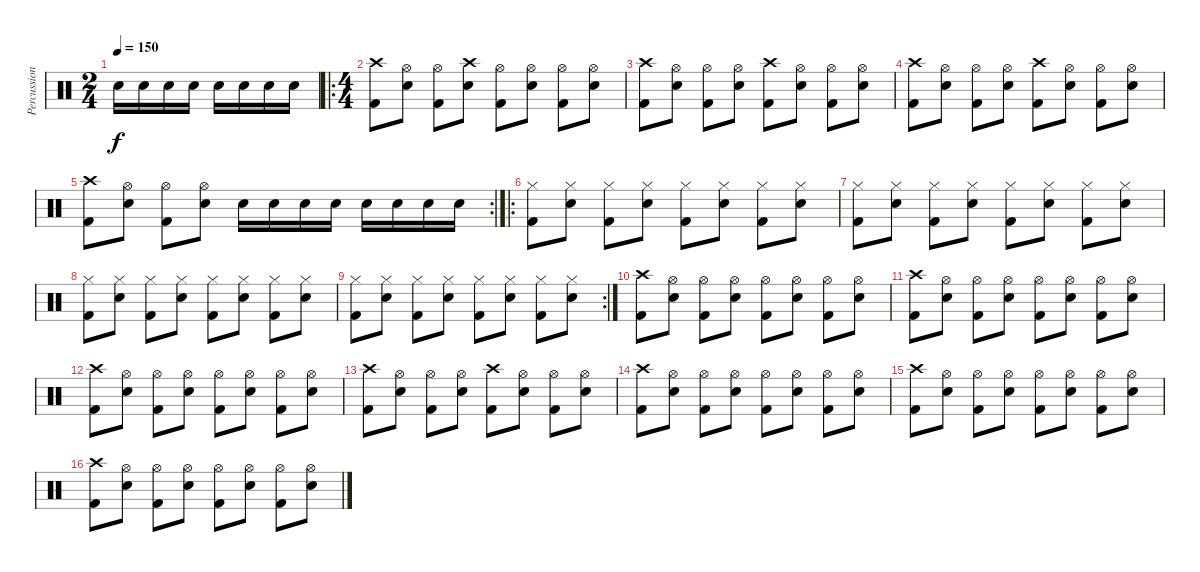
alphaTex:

\track ("Percussion" "Percussion") {instrument percussion}
\staff {score}
\articulation defaults
\ts (2 4)
\tempo 150
\clef neutral
\ks c "Electric Snare (hit)".16{dy f} "Electric Snare (hit)".16 "Electric Snare (hit)".16 "Electric Snare (hit)".16 "Electric Snare (hit)".16 "Electric Snare (hit)".16 "Electric Snare (hit)".16 "Electric Snare (hit)".16
|
\ro
\ts (4 4)
("Crash high (hit)" "Kick (hit) 2").8 ("Hi-Hat (open)" "Electric Snare (hit)").8 ("Hi-Hat (open)" "Kick (hit) 2").8 ("Crash high (hit)" "Electric Snare (hit)").8 ("Hi-Hat (open)" "Kick (hit) 2").8 ("Hi-Hat (open)" "Electric Snare (hit)").8 ("Hi-Hat (open)" "Kick (hit) 2").8 ("Hi-Hat (open)" "Electric Snare (hit)").8 |
("Crash high (hit)" "Kick (hit) 2").8 ("Hi-Hat (open)" "Electric Snare (hit)").8 ("Hi-Hat (open)" "Kick (hit) 2").8 ("Hi-Hat (open)" "Electric Snare (hit)").8 ("Crash high (hit)" "Kick (hit) 2").8 ("Hi-Hat (open)" "Electric Snare (hit)").8 ("Hi-Hat (open)" "Kick (hit) 2").8 ("Hi-Hat (open)" "Electric Snare (hit)").8 |
("Crash high (hit)" "Kick (hit) 2").8 ("Hi-Hat (open)" "Electric Snare (hit)").8 ("Hi-Hat (open)" "Kick (hit) 2").8 ("Hi-Hat (open)" "Electric Snare (hit)").8 ("Crash high (hit)" "Kick (hit) 2").8 ("Hi-Hat (open)" "Electric Snare (hit)").8 ("Hi-Hat (open)" "Kick (hit) 2").8 ("Hi-Hat (open)" "Electric Snare (hit)").8 |
\rc 2
("Crash high (hit)" "Kick (hit) 2").8 ("Hi-Hat (open)" "Electric Snare (hit)").8 ("Hi-Hat (open)" "Kick (hit) 2").8 ("Hi-Hat (open)" "Electric Snare (hit)").8 "Electric Snare (hit)".16 "Electric Snare (hit)".16 "Electric Snare (hit)".16 "Electric Snare (hit)".16 "Electric Snare (hit)".16 "Electric Snare (hit)".16 "Electric Snare (hit)".16 "Electric Snare (hit)".16 |
\ro
("Hi-Hat (closed)" "Kick (hit) 2").8 ("Hi-Hat (closed)" "Electric Snare (hit)").8 ("Hi-Hat (closed)" "Kick (hit) 2").8 ("Hi-Hat (closed)" "Electric Snare (hit)").8 ("Hi-Hat (closed)" "Kick (hit) 2").8 ("Hi-Hat (closed)" "Electric Snare (hit)").8 ("Hi-Hat (closed)" "Kick (hit) 2").8 ("Hi-Hat (closed)" "Electric Snare (hit)").8 |
("Hi-Hat (closed)" "Kick (hit) 2").8 ("Hi-Hat (closed)" "Electric Snare (hit)").8 ("Hi-Hat (closed)" "Kick (hit) 2").8 ("Hi-Hat (closed)" "Electric Snare (hit)").8 ("Hi-Hat (closed)" "Kick (hit) 2").8 ("Hi-Hat (closed)" "Electric Snare (hit)").8 ("Hi-Hat (closed)" "Kick (hit) 2").8 ("Hi-Hat (closed)" "Electric Snare (hit)").8 |
("Hi-Hat (closed)" "Kick (hit) 2").8 ("Hi-Hat (closed)" "Electric Snare (hit)").8 ("Hi-Hat (closed)" "Kick (hit) 2").8 ("Hi-Hat (closed)" "Electric Snare (hit)").8 ("Hi-Hat (closed)" "Kick (hit) 2").8 ("Hi-Hat (closed)" "Electric Snare (hit)").8 ("Hi-Hat (closed)" "Kick (hit) 2").8 ("Hi-Hat (closed)" "Electric Snare (hit)").8 |
\rc 2
("Hi-Hat (closed)" "Kick (hit) 2").8 ("Hi-Hat (closed)" "Electric Snare (hit)").8 ("Hi-Hat (closed)" "Kick (hit) 2").8 ("Hi-Hat (closed)" "Electric Snare (hit)").8 ("Hi-Hat (closed)" "Kick (hit) 2").8 ("Hi-Hat (closed)" "Electric Snare (hit)").8 ("Hi-Hat (closed)" "Kick (hit) 2").8 ("Hi-Hat (closed)" "Electric Snare (hit)").8 |
("Crash high (hit)" "Kick (hit) 2").8 ("Hi-Hat (open)" "Electric Snare (hit)").8 ("Hi-Hat (open)" "Kick (hit) 2").8 ("Hi-Hat (open)" "Electric Snare (hit)").8 ("Hi-Hat (open)" "Kick (hit) 2").8 ("Hi-Hat (open)" "Electric Snare (hit)").8 ("Hi-Hat (open)" "Kick (hit) 2").8 ("Hi-Hat (open)" "Electric Snare (hit)").8 |
("Crash high (hit)" "Kick (hit) 2").8 ("Hi-Hat (open)" "Electric Snare (hit)").8 ("Hi-Hat (open)" "Kick (hit) 2").8 ("Hi-Hat (open)" "Electric Snare (hit)").8 ("Hi-Hat (open)" "Kick (hit) 2").8 ("Hi-Hat (open)" "Electric Snare (hit)").8 ("Hi-Hat (open)" "Kick (hit) 2").8 ("Hi-Hat (open)" "Electric Snare (hit)").8 |
("Crash high (hit)" "Kick (hit) 2").8 ("Hi-Hat (open)" "Electric Snare (hit)").8 ("Hi-Hat (open)" "Kick (hit) 2").8 ("Hi-Hat (open)" "Electric Snare (hit)").8 ("Hi-Hat (open)" "Kick (hit) 2").8 ("Hi-Hat (open)" "Electric Snare (hit)").8 ("Hi-Hat (open)" "Kick (hit) 2").8 ("Hi-Hat (open)" "Electric Snare (hit)").8 |
("Crash high (hit)" "Kick (hit) 2").8 ("Hi-Hat (open)" "Electric Snare (hit)").8 ("Hi-Hat (open)" "Kick (hit) 2").8 ("Hi-Hat (open)" "Electric Snare (hit)").8 ("Crash high (hit)" "Kick (hit) 2").8 ("Hi-Hat (open)" "Electric Snare (hit)").8 ("Hi-Hat (open)" "Kick (hit) 2").8 ("Hi-Hat (open)" "Electric Snare (hit)").8 |
("Crash high (hit)" "Kick (hit) 2").8 ("Hi-Hat (open)" "Electric Snare (hit)").8 ("Hi-Hat (open)" "Kick (hit) 2").8 ("Hi-Hat (open)" "Electric Snare (hit)").8 ("Hi-Hat (open)" "Kick (hit) 2").8 ("Hi-Hat (open)" "Electric Snare (hit)").8 ("Hi-Hat (open)" "Kick (hit) 2").8 ("Hi-Hat (open)" "Electric Snare (hit)").8 |
("Crash high (hit)" "Kick (hit) 2").8 ("Hi-Hat (open)" "Electric Snare (hit)").8 ("Hi-Hat (open)" "Kick (hit) 2").8 ("Hi-Hat (open)" "Electric Snare (hit)").8 ("Hi-Hat (open)" "Kick (hit) 2").8 ("Hi-Hat (open)" "Electric Snare (hit)").8 ("Hi-Hat (open)" "Kick (hit) 2").8 ("Hi-Hat (open)" "Electric Snare (hit)").8 |
("Crash high (hit)" "Kick (hit) 2").8 ("Hi-Hat (open)" "Electric Snare (hit)").8 ("Hi-Hat (open)" "Kick (hit) 2").8 ("Hi-Hat (open)" "Electric Snare (hit)").8 ("Hi-Hat (open)" "Kick (hit) 2").8 ("Hi-Hat (open)" "Electric Snare (hit)").8 ("Hi-Hat (open)" "Kick (hit) 2").8 ("Hi-Hat (open)" "Electric Snare (hit)").8
